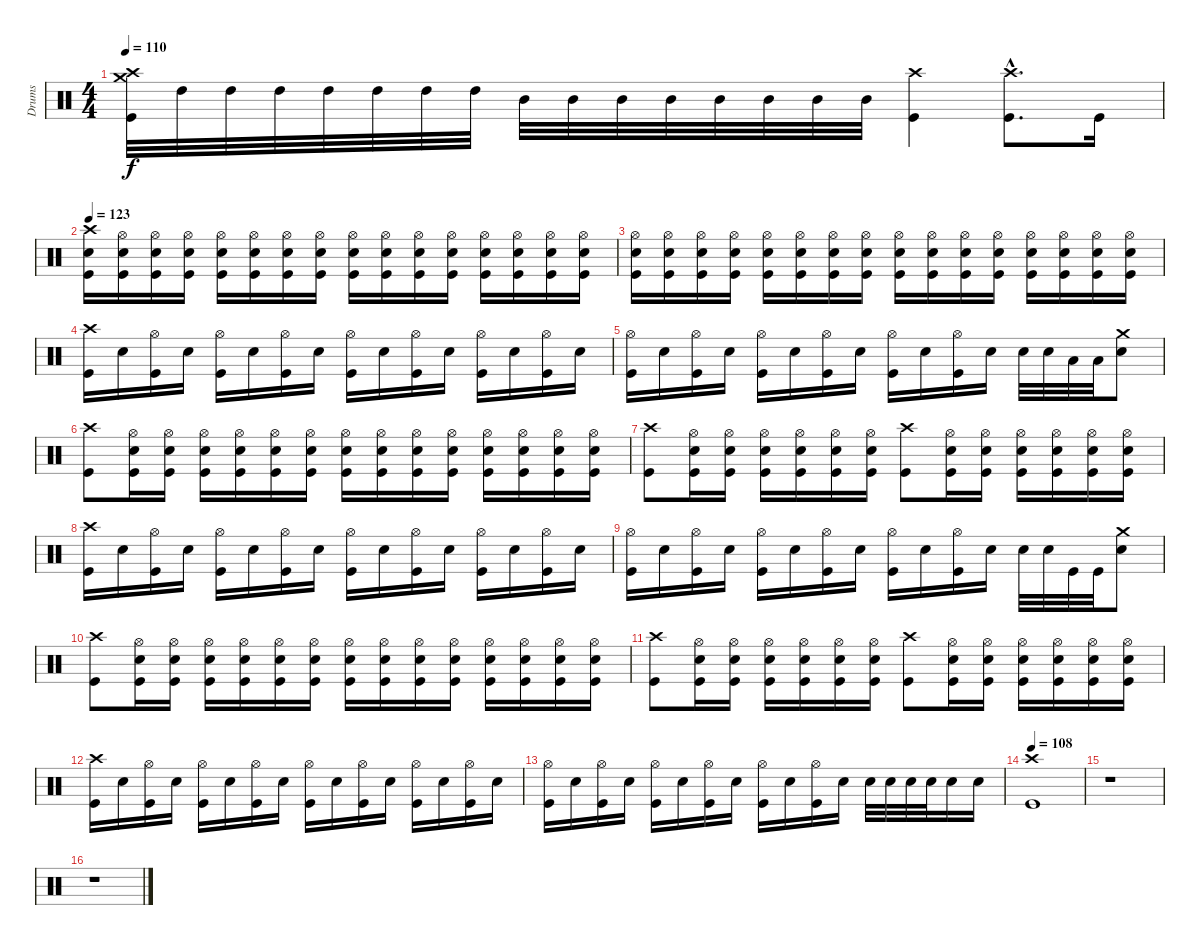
\track ("Drums" "Drums") {instrument percussion}
\staff {score}
\articulation defaults
\ts (4 4)
\tempo 110
\clef neutral
\ks c
("Crash high (hit)" "Crash medium (hit)" "Kick (hit)").32{dy f} "High Tom (hit)".32 "High Tom (hit)".32 "High Tom (hit)".32 "High Tom (hit)".32 "High Tom (hit)".32 "High Tom (hit)".32 "High Tom (hit)".32 "Mid Tom (hit)".32 "Mid Tom (hit)".32 "Mid Tom (hit)".32 "Mid Tom (hit)".32 "Mid Tom (hit)".32 "Mid Tom (hit)".32 "Mid Tom (hit)".32 "Mid Tom (hit)".32 ("Crash high (hit)" "Kick (hit)").4 ("Crash high (hit)"{hac} "Kick (hit)"{hac}).8{d} "Kick (hit)".16 |
\tempo 123
("Crash high (hit)" "Electric Snare (hit)" "Kick (hit)").16 ("Hi-Hat (open)" "Electric Snare (hit)" "Kick (hit)").16 ("Hi-Hat (open)" "Electric Snare (hit)" "Kick (hit)").16 ("Hi-Hat (open)" "Electric Snare (hit)" "Kick (hit)").16 ("Hi-Hat (open)" "Electric Snare (hit)" "Kick (hit)").16 ("Hi-Hat (open)" "Electric Snare (hit)" "Kick (hit)").16 ("Hi-Hat (open)" "Electric Snare (hit)" "Kick (hit)").16 ("Hi-Hat (open)" "Electric Snare (hit)" "Kick (hit)").16 ("Hi-Hat (open)" "Electric Snare (hit)" "Kick (hit)").16 ("Hi-Hat (open)" "Electric Snare (hit)" "Kick (hit)").16 ("Hi-Hat (open)" "Electric Snare (hit)" "Kick (hit)").16 ("Hi-Hat (open)" "Electric Snare (hit)" "Kick (hit)").16 ("Hi-Hat (open)" "Electric Snare (hit)" "Kick (hit)").16 ("Hi-Hat (open)" "Electric Snare (hit)" "Kick (hit)").16 ("Hi-Hat (open)" "Electric Snare (hit)" "Kick (hit)").16 ("Hi-Hat (open)" "Electric Snare (hit)" "Kick (hit)").16 |
("Hi-Hat (open)" "Electric Snare (hit)" "Kick (hit)").16 ("Hi-Hat (open)" "Electric Snare (hit)" "Kick (hit)").16 ("Hi-Hat (open)" "Electric Snare (hit)" "Kick (hit)").16 ("Hi-Hat (open)" "Electric Snare (hit)" "Kick (hit)").16 ("Hi-Hat (open)" "Electric Snare (hit)" "Kick (hit)").16 ("Hi-Hat (open)" "Electric Snare (hit)" "Kick (hit)").16 ("Hi-Hat (open)" "Electric Snare (hit)" "Kick (hit)").16 ("Hi-Hat (open)" "Electric Snare (hit)" "Kick (hit)").16 ("Hi-Hat (open)" "Electric Snare (hit)" "Kick (hit)").16 ("Hi-Hat (open)" "Electric Snare (hit)" "Kick (hit)").16 ("Hi-Hat (open)" "Electric Snare (hit)" "Kick (hit)").16 ("Hi-Hat (open)" "Electric Snare (hit)" "Kick (hit)").16 ("Hi-Hat (open)" "Electric Snare (hit)" "Kick (hit)").16 ("Hi-Hat (open)" "Electric Snare (hit)" "Kick (hit)").16 ("Hi-Hat (open)" "Electric Snare (hit)" "Kick (hit)").16 ("Hi-Hat (open)" "Electric Snare (hit)" "Kick (hit)").16 |
("Crash high (hit)" "Kick (hit)").16 "Electric Snare (hit)".16 ("Hi-Hat (open)" "Kick (hit)").16 "Electric Snare (hit)".16 ("Hi-Hat (open)" "Kick (hit)").16 "Electric Snare (hit)".16 ("Hi-Hat (open)" "Kick (hit)").16 "Electric Snare (hit)".16 ("Hi-Hat (open)" "Kick (hit)").16 "Electric Snare (hit)".16 ("Hi-Hat (open)" "Kick (hit)").16 "Electric Snare (hit)".16 ("Hi-Hat (open)" "Kick (hit)").16 "Electric Snare (hit)".16 ("Hi-Hat (open)" "Kick (hit)").16 "Electric Snare (hit)".16 |
("Hi-Hat (open)" "Kick (hit)").16 "Electric Snare (hit)".16 ("Hi-Hat (open)" "Kick (hit)").16 "Electric Snare (hit)".16 ("Hi-Hat (open)" "Kick (hit)").16 "Electric Snare (hit)".16 ("Hi-Hat (open)" "Kick (hit)").16 "Electric Snare (hit)".16 ("Hi-Hat (open)" "Kick (hit)").16 "Electric Snare (hit)".16 ("Hi-Hat (open)" "Kick (hit)").16 "Electric Snare (hit)".16 "Electric Snare (hit)".32 "Electric Snare (hit)".32 "Low Tom (hit)".32 "Low Tom (hit)".32 ("Crash medium (hit)" "Electric Snare (hit)").8 |
("Crash high (hit)" "Kick (hit)").8 ("Hi-Hat (open)" "Electric Snare (hit)" "Kick (hit)").16 ("Hi-Hat (open)" "Electric Snare (hit)" "Kick (hit)").16 ("Hi-Hat (open)" "Electric Snare (hit)" "Kick (hit)").16 ("Hi-Hat (open)" "Electric Snare (hit)" "Kick (hit)").16 ("Hi-Hat (open)" "Electric Snare (hit)" "Kick (hit)").16 ("Hi-Hat (open)" "Electric Snare (hit)" "Kick (hit)").16 ("Hi-Hat (open)" "Electric Snare (hit)" "Kick (hit)").16 ("Hi-Hat (open)" "Electric Snare (hit)" "Kick (hit)").16 ("Hi-Hat (open)" "Electric Snare (hit)" "Kick (hit)").16 ("Hi-Hat (open)" "Electric Snare (hit)" "Kick (hit)").16 ("Hi-Hat (open)" "Electric Snare (hit)" "Kick (hit)").16 ("Hi-Hat (open)" "Electric Snare (hit)" "Kick (hit)").16 ("Hi-Hat (open)" "Electric Snare (hit)" "Kick (hit)").16 ("Hi-Hat (open)" "Electric Snare (hit)" "Kick (hit)").16 |
("Crash high (hit)" "Kick (hit)").8 ("Hi-Hat (open)" "Electric Snare (hit)" "Kick (hit)").16 ("Hi-Hat (open)" "Electric Snare (hit)" "Kick (hit)").16 ("Hi-Hat (open)" "Electric Snare (hit)" "Kick (hit)").16 ("Hi-Hat (open)" "Electric Snare (hit)" "Kick (hit)").16 ("Hi-Hat (open)" "Electric Snare (hit)" "Kick (hit)").16 ("Hi-Hat (open)" "Electric Snare (hit)" "Kick (hit)").16 ("Crash high (hit)" "Kick (hit)").8 ("Hi-Hat (open)" "Electric Snare (hit)" "Kick (hit)").16 ("Hi-Hat (open)" "Electric Snare (hit)" "Kick (hit)").16 ("Hi-Hat (open)" "Electric Snare (hit)" "Kick (hit)").16 ("Hi-Hat (open)" "Electric Snare (hit)" "Kick (hit)").16 ("Hi-Hat (open)" "Electric Snare (hit)" "Kick (hit)").16 ("Hi-Hat (open)" "Electric Snare (hit)" "Kick (hit)").16 |
("Crash high (hit)" "Kick (hit)").16 "Electric Snare (hit)".16 ("Hi-Hat (open)" "Kick (hit)").16 "Electric Snare (hit)".16 ("Hi-Hat (open)" "Kick (hit)").16 "Electric Snare (hit)".16 ("Hi-Hat (open)" "Kick (hit)").16 "Electric Snare (hit)".16 ("Hi-Hat (open)" "Kick (hit)").16 "Electric Snare (hit)".16 ("Hi-Hat (open)" "Kick (hit)").16 "Electric Snare (hit)".16 ("Hi-Hat (open)" "Kick (hit)").16 "Electric Snare (hit)".16 ("Hi-Hat (open)" "Kick (hit)").16 "Electric Snare (hit)".16 |
("Hi-Hat (open)" "Kick (hit)").16 "Electric Snare (hit)".16 ("Hi-Hat (open)" "Kick (hit)").16 "Electric Snare (hit)".16 ("Hi-Hat (open)" "Kick (hit)").16 "Electric Snare (hit)".16 ("Hi-Hat (open)" "Kick (hit)").16 "Electric Snare (hit)".16 ("Hi-Hat (open)" "Kick (hit)").16 "Electric Snare (hit)".16 ("Hi-Hat (open)" "Kick (hit)").16 "Electric Snare (hit)".16 "Electric Snare (hit)".32 "Electric Snare (hit)".32 "Kick (hit)".32 "Kick (hit)".32 ("Crash medium (hit)" "Electric Snare (hit)").8 |
("Crash high (hit)" "Kick (hit)").8 ("Hi-Hat (open)" "Electric Snare (hit)" "Kick (hit)").16 ("Hi-Hat (open)" "Electric Snare (hit)" "Kick (hit)").16 ("Hi-Hat (open)" "Electric Snare (hit)" "Kick (hit)").16 ("Hi-Hat (open)" "Electric Snare (hit)" "Kick (hit)").16 ("Hi-Hat (open)" "Electric Snare (hit)" "Kick (hit)").16 ("Hi-Hat (open)" "Electric Snare (hit)" "Kick (hit)").16 ("Hi-Hat (open)" "Electric Snare (hit)" "Kick (hit)").16 ("Hi-Hat (open)" "Electric Snare (hit)" "Kick (hit)").16 ("Hi-Hat (open)" "Electric Snare (hit)" "Kick (hit)").16 ("Hi-Hat (open)" "Electric Snare (hit)" "Kick (hit)").16 ("Hi-Hat (open)" "Electric Snare (hit)" "Kick (hit)").16 ("Hi-Hat (open)" "Electric Snare (hit)" "Kick (hit)").16 ("Hi-Hat (open)" "Electric Snare (hit)" "Kick (hit)").16 ("Hi-Hat (open)" "Electric Snare (hit)" "Kick (hit)").16 |
("Crash high (hit)" "Kick (hit)").8 ("Hi-Hat (open)" "Electric Snare (hit)" "Kick (hit)").16 ("Hi-Hat (open)" "Electric Snare (hit)" "Kick (hit)").16 ("Hi-Hat (open)" "Electric Snare (hit)" "Kick (hit)").16 ("Hi-Hat (open)" "Electric Snare (hit)" "Kick (hit)").16 ("Hi-Hat (open)" "Electric Snare (hit)" "Kick (hit)").16 ("Hi-Hat (open)" "Electric Snare (hit)" "Kick (hit)").16 ("Crash high (hit)" "Kick (hit)").8 ("Hi-Hat (open)" "Electric Snare (hit)" "Kick (hit)").16 ("Hi-Hat (open)" "Electric Snare (hit)" "Kick (hit)").16 ("Hi-Hat (open)" "Electric Snare (hit)" "Kick (hit)").16 ("Hi-Hat (open)" "Electric Snare (hit)" "Kick (hit)").16 ("Hi-Hat (open)" "Electric Snare (hit)" "Kick (hit)").16 ("Hi-Hat (open)" "Electric Snare (hit)" "Kick (hit)").16 |
("Crash high (hit)" "Kick (hit)").16 "Electric Snare (hit)".16 ("Hi-Hat (open)" "Kick (hit)").16 "Electric Snare (hit)".16 ("Hi-Hat (open)" "Kick (hit)").16 "Electric Snare (hit)".16 ("Hi-Hat (open)" "Kick (hit)").16 "Electric Snare (hit)".16 ("Hi-Hat (open)" "Kick (hit)").16 "Electric Snare (hit)".16 ("Hi-Hat (open)" "Kick (hit)").16 "Electric Snare (hit)".16 ("Hi-Hat (open)" "Kick (hit)").16 "Electric Snare (hit)".16 ("Hi-Hat (open)" "Kick (hit)").16 "Electric Snare (hit)".16 |
("Hi-Hat (open)" "Kick (hit)").16 "Electric Snare (hit)".16 ("Hi-Hat (open)" "Kick (hit)").16 "Electric Snare (hit)".16 ("Hi-Hat (open)" "Kick (hit)").16 "Electric Snare (hit)".16 ("Hi-Hat (open)" "Kick (hit)").16 "Electric Snare (hit)".16 ("Hi-Hat (open)" "Kick (hit)").16 "Electric Snare (hit)".16 ("Hi-Hat (open)" "Kick (hit)").16 "Electric Snare (hit)".16 "Electric Snare (hit)".32 "Electric Snare (hit)".32 "Electric Snare (hit)".32 "Electric Snare (hit)".32 "Electric Snare (hit)".16 "Electric Snare (hit)".16 |
\tempo 108
("Crash high (hit)" "Kick (hit)").1 |
r.1 |
r.1
